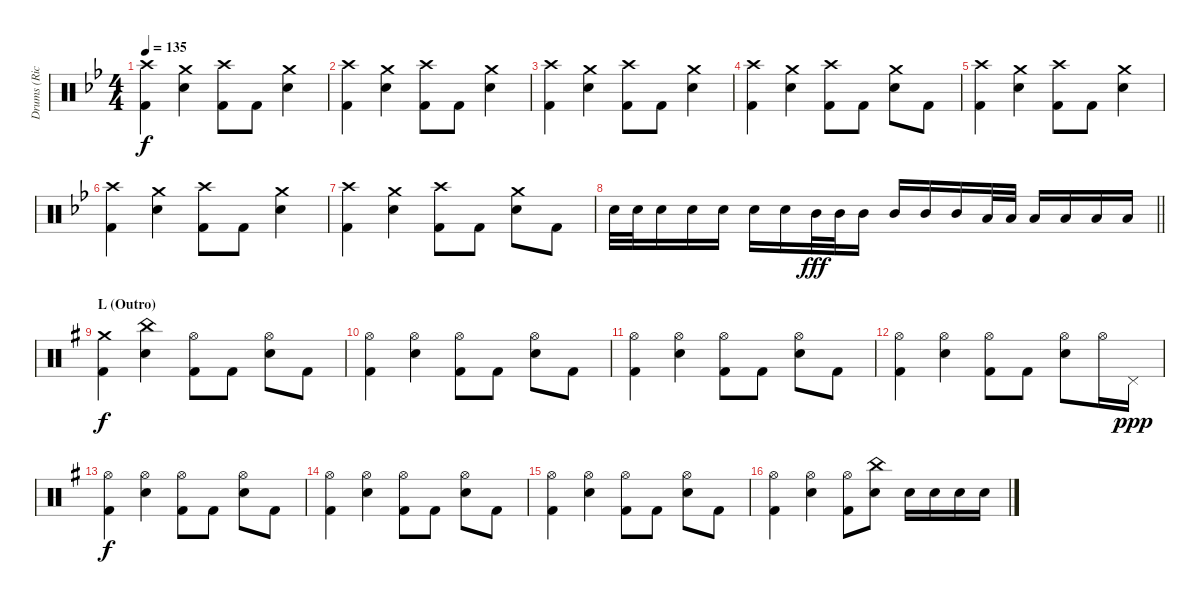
\track ("Drums (Richard Evensand)" "Drums (Ric") {instrument percussion}
\staff {score}
\articulation defaults
\ts (4 4)
\tempo 135
\clef neutral
\ks gminor
("Crash high (hit)" "Kick (hit) 2").4{dy f} ("Crash medium (hit)" "Electric Snare (hit)").4 ("Crash high (hit)" "Kick (hit) 2").8 "Kick (hit) 2".8 ("Crash medium (hit)" "Electric Snare (hit)").4 |
("Crash high (hit)" "Kick (hit) 2").4 ("Crash medium (hit)" "Electric Snare (hit)").4 ("Crash high (hit)" "Kick (hit) 2").8 "Kick (hit) 2".8 ("Crash medium (hit)" "Electric Snare (hit)").4 |
("Crash high (hit)" "Kick (hit) 2").4 ("Crash medium (hit)" "Electric Snare (hit)").4 ("Crash high (hit)" "Kick (hit) 2").8 "Kick (hit) 2".8 ("Crash medium (hit)" "Electric Snare (hit)").4 |
("Crash high (hit)" "Kick (hit) 2").4 ("Crash medium (hit)" "Electric Snare (hit)").4 ("Crash high (hit)" "Kick (hit) 2").8 "Kick (hit) 2".8 ("Crash medium (hit)" "Electric Snare (hit)").8 "Kick (hit) 2".8 |
("Crash high (hit)" "Kick (hit) 2").4 ("Crash medium (hit)" "Electric Snare (hit)").4 ("Crash high (hit)" "Kick (hit) 2").8 "Kick (hit) 2".8 ("Crash medium (hit)" "Electric Snare (hit)").4 |
("Crash high (hit)" "Kick (hit) 2").4 ("Crash medium (hit)" "Electric Snare (hit)").4 ("Crash high (hit)" "Kick (hit) 2").8 "Kick (hit) 2".8 ("Crash medium (hit)" "Electric Snare (hit)").4 |
("Crash high (hit)" "Kick (hit) 2").4 ("Crash medium (hit)" "Electric Snare (hit)").4 ("Crash high (hit)" "Kick (hit) 2").8 "Kick (hit) 2".8 ("Crash medium (hit)" "Electric Snare (hit)").8 "Kick (hit) 2".8 |
\barLineRight lightlight "Electric Snare (hit)".32 "Electric Snare (hit)".32 "Electric Snare (hit)".16 "Electric Snare (hit)".16 "Electric Snare (hit)".16 "Electric Snare (hit)".16 "Electric Snare (hit)".16 "Mid Tom (hit)".32{dy fff} "Mid Tom (hit)".32 "Mid Tom (hit)".16 "Mid Tom (hit)".16 "Mid Tom (hit)".16 "Mid Tom (hit)".16 "Low Tom (hit)".32 "Low Tom (hit)".32 "Low Tom (hit)".16 "Low Tom (hit)".16 "Low Tom (hit)".16 "Low Tom (hit)".16
|
\section ("" "L (Outro)")
\ks eminor
("Crash medium (hit)" "Kick (hit) 2").4{dy f} ("China (hit)" "Electric Snare (hit)").4 ("Hi-Hat (open)" "Kick (hit) 2").8 "Kick (hit) 2".8 ("Hi-Hat (open)" "Electric Snare (hit)").8 "Kick (hit) 2".8 |
("Hi-Hat (open)" "Kick (hit) 2").4 ("Hi-Hat (open)" "Electric Snare (hit)").4 ("Hi-Hat (open)" "Kick (hit) 2").8 "Kick (hit) 2".8 ("Hi-Hat (open)" "Electric Snare (hit)").8 "Kick (hit) 2".8 |
("Hi-Hat (open)" "Kick (hit) 2").4 ("Hi-Hat (open)" "Electric Snare (hit)").4 ("Hi-Hat (open)" "Kick (hit) 2").8 "Kick (hit) 2".8 ("Hi-Hat (open)" "Electric Snare (hit)").8 "Kick (hit) 2".8 |
("Hi-Hat (open)" "Kick (hit) 2").4 ("Hi-Hat (open)" "Electric Snare (hit)").4 ("Hi-Hat (open)" "Kick (hit) 2").8 "Kick (hit) 2".8 ("Hi-Hat (open)" "Electric Snare (hit)").8 "Hi-Hat (open)".16 "Pedal Hi-Hat (hit)".16{dy ppp} |
("Hi-Hat (open)" "Kick (hit) 2").4{dy f} ("Hi-Hat (open)" "Electric Snare (hit)").4 ("Hi-Hat (open)" "Kick (hit) 2").8 "Kick (hit) 2".8 ("Hi-Hat (open)" "Electric Snare (hit)").8 "Kick (hit) 2".8 |
("Hi-Hat (open)" "Kick (hit) 2").4 ("Hi-Hat (open)" "Electric Snare (hit)").4 ("Hi-Hat (open)" "Kick (hit) 2").8 "Kick (hit) 2".8 ("Hi-Hat (open)" "Electric Snare (hit)").8 "Kick (hit) 2".8 |
("Hi-Hat (open)" "Kick (hit) 2").4 ("Hi-Hat (open)" "Electric Snare (hit)").4 ("Hi-Hat (open)" "Kick (hit) 2").8 "Kick (hit) 2".8 ("Hi-Hat (open)" "Electric Snare (hit)").8 "Kick (hit) 2".8 |
("Hi-Hat (open)" "Kick (hit) 2").4 ("Hi-Hat (open)" "Electric Snare (hit)").4 ("Hi-Hat (open)" "Kick (hit) 2").8 ("China (hit)" "Electric Snare (hit)").8 "Electric Snare (hit)".16 "Electric Snare (hit)".16 "Electric Snare (hit)".16 "Electric Snare (hit)".16
